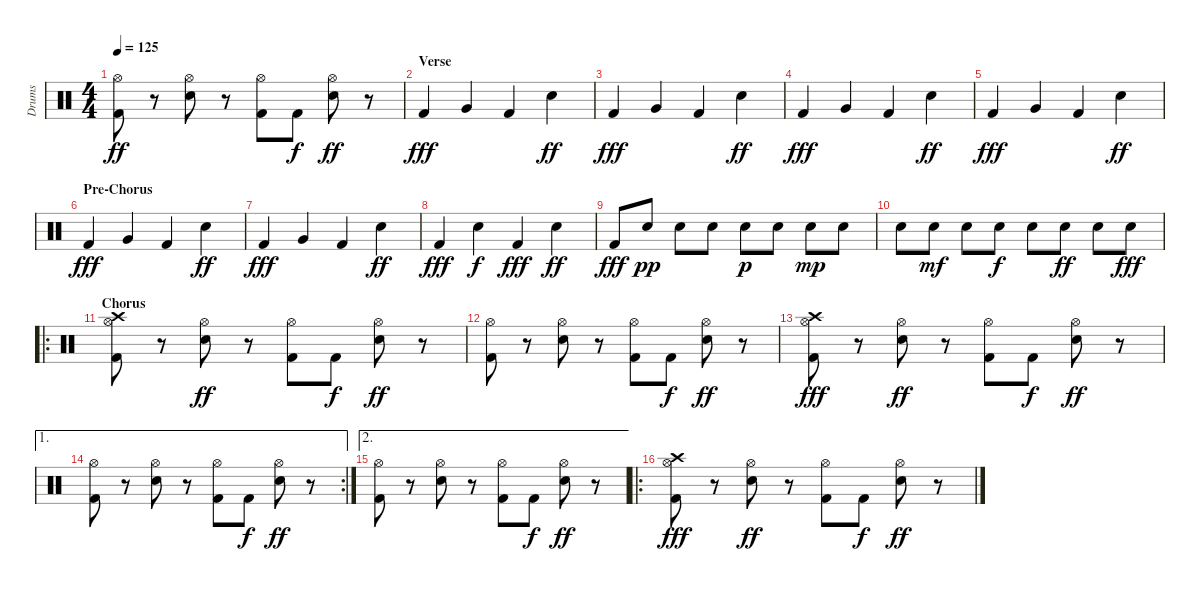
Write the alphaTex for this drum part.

\track ("Drums" "Drums") {instrument percussion}
\staff {score}
\articulation defaults
\ts (4 4)
\tempo 125
\clef neutral
\ks c
("Hi-Hat (open)" "Kick (hit) 2").8{dy ff} r.8 ("Hi-Hat (open)" "Snare (hit) 2").8 r.8 ("Hi-Hat (open)" "Kick (hit) 2").8 "Kick (hit) 2".8{dy f} ("Hi-Hat (open)" "Snare (hit) 2").8{dy ff} r.8 |
\section ("" "Verse")
"Kick (hit) 2".4{dy fff} "Very Low Tom (hit)".4 "Kick (hit) 2".4 "Snare (hit) 2".4{dy ff} |
"Kick (hit) 2".4{dy fff} "Very Low Tom (hit)".4 "Kick (hit) 2".4 "Snare (hit) 2".4{dy ff} |
"Kick (hit) 2".4{dy fff} "Very Low Tom (hit)".4 "Kick (hit) 2".4 "Snare (hit) 2".4{dy ff} |
"Kick (hit) 2".4{dy fff} "Very Low Tom (hit)".4 "Kick (hit) 2".4 "Snare (hit) 2".4{dy ff} |
\section ("" "Pre-Chorus")
"Kick (hit) 2".4{dy fff} "Very Low Tom (hit)".4 "Kick (hit) 2".4 "Snare (hit) 2".4{dy ff} |
"Kick (hit) 2".4{dy fff} "Very Low Tom (hit)".4 "Kick (hit) 2".4 "Snare (hit) 2".4{dy ff} |
"Kick (hit) 2".4{dy fff} "Snare (hit) 2".4{dy f} "Kick (hit) 2".4{dy fff} "Snare (hit) 2".4{dy ff} |
"Kick (hit) 2".8{dy fff} "Snare (hit) 2".8{dy pp} "Snare (hit) 2".8 "Snare (hit) 2".8 "Snare (hit) 2".8{dy p} "Snare (hit) 2".8 "Snare (hit) 2".8{dy mp} "Snare (hit) 2".8 |
"Snare (hit) 2".8 "Snare (hit) 2".8{dy mf} "Snare (hit) 2".8 "Snare (hit) 2".8{dy f} "Snare (hit) 2".8 "Snare (hit) 2".8{dy ff} "Snare (hit) 2".8 "Snare (hit) 2".8{dy fff} |
\ro
\section ("" "Chorus")
("Hi-Hat (open)" "Kick (hit) 2" "Crash high (hit)").8 r.8 ("Hi-Hat (open)" "Snare (hit) 2").8{dy ff} r.8 ("Hi-Hat (open)" "Kick (hit) 2").8 "Kick (hit) 2".8{dy f} ("Hi-Hat (open)" "Snare (hit) 2").8{dy ff} r.8 |
("Hi-Hat (open)" "Kick (hit) 2").8 r.8 ("Hi-Hat (open)" "Snare (hit) 2").8 r.8 ("Hi-Hat (open)" "Kick (hit) 2").8 "Kick (hit) 2".8{dy f} ("Hi-Hat (open)" "Snare (hit) 2").8{dy ff} r.8 |
("Hi-Hat (open)" "Kick (hit) 2" "Crash high (hit)").8{dy fff} r.8 ("Hi-Hat (open)" "Snare (hit) 2").8{dy ff} r.8 ("Hi-Hat (open)" "Kick (hit) 2").8 "Kick (hit) 2".8{dy f} ("Hi-Hat (open)" "Snare (hit) 2").8{dy ff} r.8 |
\ae 1
\rc 2
("Hi-Hat (open)" "Kick (hit) 2").8 r.8 ("Hi-Hat (open)" "Snare (hit) 2").8 r.8 ("Hi-Hat (open)" "Kick (hit) 2").8 "Kick (hit) 2".8{dy f} ("Hi-Hat (open)" "Snare (hit) 2").8{dy ff} r.8 |
\ae 2
("Hi-Hat (open)" "Kick (hit) 2").8 r.8 ("Hi-Hat (open)" "Snare (hit) 2").8 r.8 ("Hi-Hat (open)" "Kick (hit) 2").8 "Kick (hit) 2".8{dy f} ("Hi-Hat (open)" "Snare (hit) 2").8{dy ff} r.8 |
\ro
("Hi-Hat (open)" "Kick (hit) 2" "Crash high (hit)").8{dy fff} r.8 ("Hi-Hat (open)" "Snare (hit) 2").8{dy ff} r.8 ("Hi-Hat (open)" "Kick (hit) 2").8 "Kick (hit) 2".8{dy f} ("Hi-Hat (open)" "Snare (hit) 2").8{dy ff} r.8
